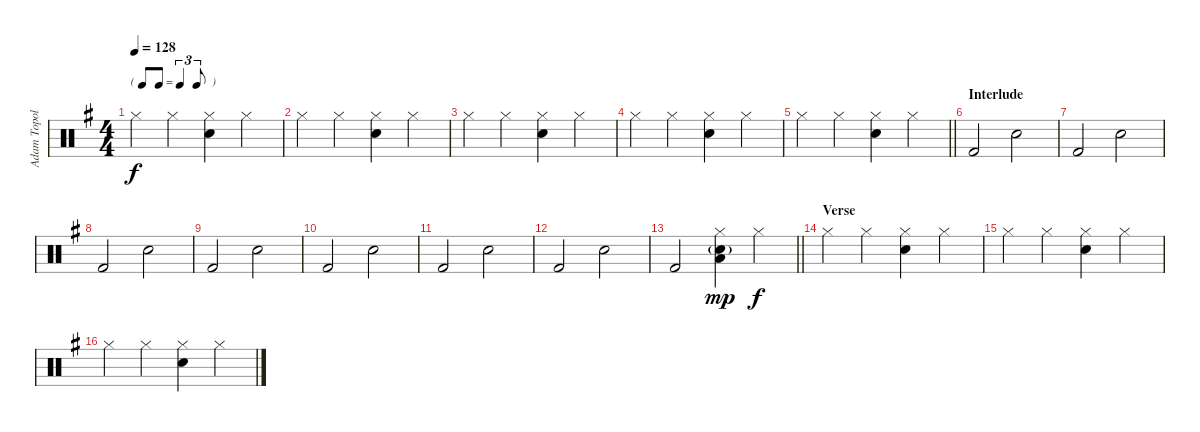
\track ("Adam Topol" "Adam Topol") {instrument percussion}
\staff {score}
\articulation defaults
\ts (4 4)
\tf triplet8th
\tempo 128
\clef neutral
\ks g "Hi-Hat (closed)".4{dy f} "Hi-Hat (closed)".4
("Hi-Hat (closed)" "Snare (hit) 2").4 "Hi-Hat (closed)".4 |
"Hi-Hat (closed)".4 "Hi-Hat (closed)".4 ("Hi-Hat (closed)" "Snare (hit) 2").4 "Hi-Hat (closed)".4 |
"Hi-Hat (closed)".4 "Hi-Hat (closed)".4 ("Hi-Hat (closed)" "Snare (hit) 2").4 "Hi-Hat (closed)".4 |
"Hi-Hat (closed)".4 "Hi-Hat (closed)".4 ("Hi-Hat (closed)" "Snare (hit) 2").4 "Hi-Hat (closed)".4 |
\barLineRight lightlight "Hi-Hat (closed)".4 "Hi-Hat (closed)".4
("Hi-Hat (closed)" "Snare (hit) 2").4 "Hi-Hat (closed)".4 |
\section ("" "Interlude")
"Kick (hit) 2".2 "Snare (hit) 2".2 |
"Kick (hit) 2".2 "Snare (hit) 2".2 |
"Kick (hit) 2".2 "Snare (hit) 2".2 |
"Kick (hit) 2".2 "Snare (hit) 2".2 |
"Kick (hit) 2".2 "Snare (hit) 2".2 |
"Kick (hit) 2".2 "Snare (hit) 2".2 |
"Kick (hit) 2".2 "Snare (hit) 2".2 |
\barLineRight lightlight "Kick (hit) 2".2
("Hi-Hat (closed)" "Low Floor Tom (hit)" "Snare (hit) 2"{g}).4{dy mp} "Hi-Hat (closed)".4{dy f} |
\section ("" "Verse")
"Hi-Hat (closed)".4 "Hi-Hat (closed)".4 ("Hi-Hat (closed)" "Snare (hit) 2").4 "Hi-Hat (closed)".4 |
"Hi-Hat (closed)".4 "Hi-Hat (closed)".4 ("Hi-Hat (closed)" "Snare (hit) 2").4 "Hi-Hat (closed)".4 |
"Hi-Hat (closed)".4 "Hi-Hat (closed)".4 ("Hi-Hat (closed)" "Snare (hit) 2").4 "Hi-Hat (closed)".4
